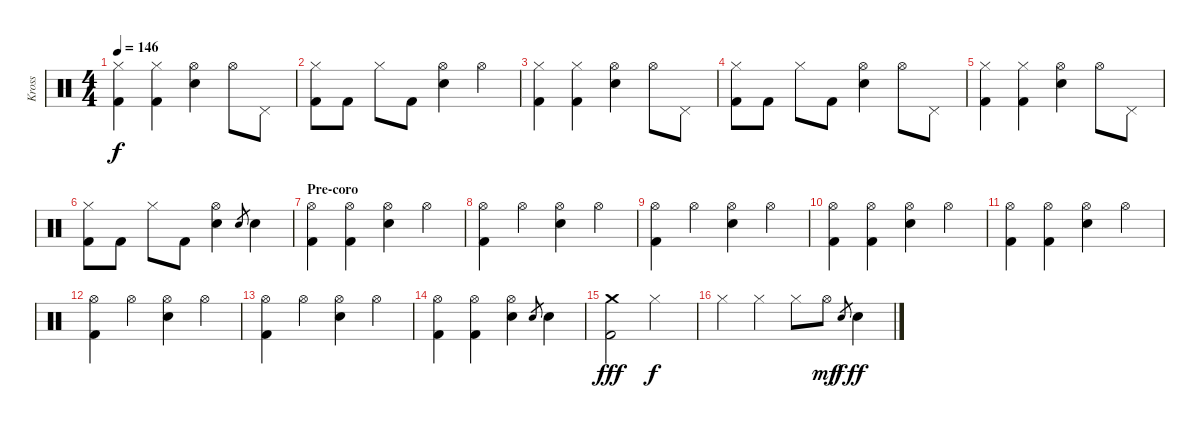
\track ("Kross" "Kross") {instrument percussion}
\staff {score}
\articulation defaults
\ts (4 4)
\tempo 146
\clef neutral
\ks c
("Hi-Hat (closed)" "Kick (hit) 2").4{dy f} ("Hi-Hat (closed)" "Kick (hit) 2").4 ("Hi-Hat (open)" "Snare (hit) 2").4 "Hi-Hat (open)".8 "Pedal Hi-Hat (hit)".8 |
("Hi-Hat (closed)" "Kick (hit) 2").8 "Kick (hit) 2".8 "Hi-Hat (closed)".8 "Kick (hit) 2".8 ("Hi-Hat (open)" "Snare (hit) 2").4 "Hi-Hat (open)".4 |
("Hi-Hat (closed)" "Kick (hit) 2").4 ("Hi-Hat (closed)" "Kick (hit) 2").4 ("Hi-Hat (open)" "Snare (hit) 2").4 "Hi-Hat (open)".8 "Pedal Hi-Hat (hit)".8 |
("Hi-Hat (closed)" "Kick (hit) 2").8 "Kick (hit) 2".8 "Hi-Hat (closed)".8 "Kick (hit) 2".8 ("Hi-Hat (open)" "Snare (hit) 2").4 "Hi-Hat (open)".8 "Pedal Hi-Hat (hit)".8 |
("Hi-Hat (closed)" "Kick (hit) 2").4 ("Hi-Hat (closed)" "Kick (hit) 2").4 ("Hi-Hat (open)" "Snare (hit) 2").4 "Hi-Hat (open)".8 "Pedal Hi-Hat (hit)".8 |
("Hi-Hat (closed)" "Kick (hit) 2").8 "Kick (hit) 2".8 "Hi-Hat (closed)".8 "Kick (hit) 2".8 ("Hi-Hat (open)" "Snare (hit) 2").4 "Snare (hit) 2".8{gr} "Snare (hit) 2".4 |
\section ("" "Pre-coro")
("Hi-Hat (open)" "Kick (hit) 2").4 ("Hi-Hat (open)" "Kick (hit) 2").4 ("Hi-Hat (open)" "Snare (hit) 2").4 "Hi-Hat (open)".4 |
("Hi-Hat (open)" "Kick (hit) 2").4 "Hi-Hat (open)".4 ("Hi-Hat (open)" "Snare (hit) 2").4 "Hi-Hat (open)".4 |
("Hi-Hat (open)" "Kick (hit) 2").4 "Hi-Hat (open)".4 ("Hi-Hat (open)" "Snare (hit) 2").4 "Hi-Hat (open)".4 |
("Hi-Hat (open)" "Kick (hit) 2").4 ("Hi-Hat (open)" "Kick (hit) 2").4 ("Hi-Hat (open)" "Snare (hit) 2").4 "Hi-Hat (open)".4 |
("Hi-Hat (open)" "Kick (hit) 2").4 ("Hi-Hat (open)" "Kick (hit) 2").4 ("Hi-Hat (open)" "Snare (hit) 2").4 "Hi-Hat (open)".4 |
("Hi-Hat (open)" "Kick (hit) 2").4 "Hi-Hat (open)".4 ("Hi-Hat (open)" "Snare (hit) 2").4 "Hi-Hat (open)".4 |
("Hi-Hat (open)" "Kick (hit) 2").4 "Hi-Hat (open)".4 ("Hi-Hat (open)" "Snare (hit) 2").4 "Hi-Hat (open)".4 |
("Hi-Hat (open)" "Kick (hit) 2").4 ("Hi-Hat (open)" "Kick (hit) 2").4 ("Hi-Hat (open)" "Snare (hit) 2").4 "Snare (hit) 2".8{gr} "Snare (hit) 2".4 |
("Crash medium (hit)" "Kick (hit) 2").2{dy fff} "Hi-Hat (closed)".2{dy f} |
"Hi-Hat (closed)".4 "Hi-Hat (closed)".4 "Hi-Hat (closed)".8 "Hi-Hat (open)".8{dy mf} "Snare (hit) 2".8{gr dy f} "Snare (hit) 2".4{dy ff}
